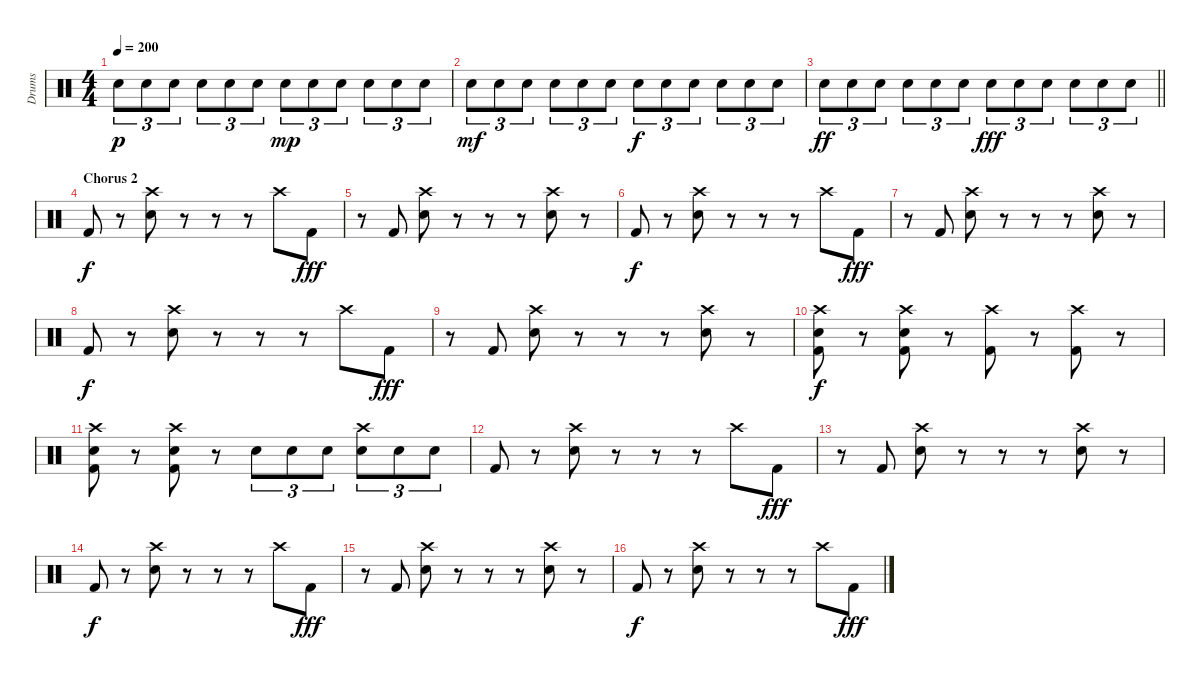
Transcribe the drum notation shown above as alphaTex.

\track ("Drums" "Drums") {instrument percussion}
\staff {score}
\articulation defaults
\ts (4 4)
\tempo 200
\clef neutral
\ks c "Snare (hit) 2".8{tu (3 2) dy p} "Snare (hit) 2".8{tu (3 2)} "Snare (hit) 2".8{tu (3 2)} "Snare (hit) 2".8{tu (3 2)} "Snare (hit) 2".8{tu (3 2)} "Snare (hit) 2".8{tu (3 2)} "Snare (hit) 2".8{tu (3 2) dy mp} "Snare (hit) 2".8{tu (3 2)} "Snare (hit) 2".8{tu (3 2)} "Snare (hit) 2".8{tu (3 2)} "Snare (hit) 2".8{tu (3 2)} "Snare (hit) 2".8{tu (3 2)}
|
"Snare (hit) 2".8{tu (3 2) dy mf} "Snare (hit) 2".8{tu (3 2)} "Snare (hit) 2".8{tu (3 2)} "Snare (hit) 2".8{tu (3 2)} "Snare (hit) 2".8{tu (3 2)} "Snare (hit) 2".8{tu (3 2)} "Snare (hit) 2".8{tu (3 2) dy f} "Snare (hit) 2".8{tu (3 2)} "Snare (hit) 2".8{tu (3 2)} "Snare (hit) 2".8{tu (3 2)} "Snare (hit) 2".8{tu (3 2)} "Snare (hit) 2".8{tu (3 2)} |
\barLineRight lightlight "Snare (hit) 2".8{tu (3 2) dy ff} "Snare (hit) 2".8{tu (3 2)} "Snare (hit) 2".8{tu (3 2)} "Snare (hit) 2".8{tu (3 2)} "Snare (hit) 2".8{tu (3 2)} "Snare (hit) 2".8{tu (3 2)} "Snare (hit) 2".8{tu (3 2) dy fff} "Snare (hit) 2".8{tu (3 2)} "Snare (hit) 2".8{tu (3 2)} "Snare (hit) 2".8{tu (3 2)} "Snare (hit) 2".8{tu (3 2)} "Snare (hit) 2".8{tu (3 2)}
|
\section ("" "Chorus 2")
"Kick (hit) 2".8{dy f} r.8 ("Crash high (hit)" "Snare (hit) 2").8 r.8 r.8 r.8 "Crash high (hit)".8 "Kick (hit) 2".8{dy fff} |
r.8 "Kick (hit) 2".8 ("Crash high (hit)" "Snare (hit) 2").8 r.8 r.8 r.8 ("Crash high (hit)" "Snare (hit) 2").8 r.8 |
"Kick (hit) 2".8{dy f} r.8 ("Crash high (hit)" "Snare (hit) 2").8 r.8 r.8 r.8 "Crash high (hit)".8 "Kick (hit) 2".8{dy fff} |
r.8 "Kick (hit) 2".8 ("Crash high (hit)" "Snare (hit) 2").8 r.8 r.8 r.8 ("Crash high (hit)" "Snare (hit) 2").8 r.8 |
"Kick (hit) 2".8{dy f} r.8 ("Crash high (hit)" "Snare (hit) 2").8 r.8 r.8 r.8 "Crash high (hit)".8 "Kick (hit) 2".8{dy fff} |
r.8 "Kick (hit) 2".8 ("Crash high (hit)" "Snare (hit) 2").8 r.8 r.8 r.8 ("Crash high (hit)" "Snare (hit) 2").8 r.8 |
("Crash high (hit)" "Snare (hit) 2" "Kick (hit) 2").8{dy f} r.8 ("Crash high (hit)" "Snare (hit) 2" "Kick (hit) 2").8 r.8 ("Crash high (hit)" "Kick (hit) 2").8 r.8 ("Crash high (hit)" "Kick (hit) 2").8 r.8 |
("Crash high (hit)" "Snare (hit) 2" "Kick (hit) 2").8 r.8 ("Crash high (hit)" "Snare (hit) 2" "Kick (hit) 2").8 r.8 "Snare (hit) 2".8{tu (3 2)} "Snare (hit) 2".8{tu (3 2)} "Snare (hit) 2".8{tu (3 2)} ("Crash high (hit)" "Snare (hit) 2").8{tu (3 2)} "Snare (hit) 2".8{tu (3 2)} "Snare (hit) 2".8{tu (3 2)} |
"Kick (hit) 2".8 r.8 ("Crash high (hit)" "Snare (hit) 2").8 r.8 r.8 r.8 "Crash high (hit)".8 "Kick (hit) 2".8{dy fff} |
r.8 "Kick (hit) 2".8 ("Crash high (hit)" "Snare (hit) 2").8 r.8 r.8 r.8 ("Crash high (hit)" "Snare (hit) 2").8 r.8 |
"Kick (hit) 2".8{dy f} r.8 ("Crash high (hit)" "Snare (hit) 2").8 r.8 r.8 r.8 "Crash high (hit)".8 "Kick (hit) 2".8{dy fff} |
r.8 "Kick (hit) 2".8 ("Crash high (hit)" "Snare (hit) 2").8 r.8 r.8 r.8 ("Crash high (hit)" "Snare (hit) 2").8 r.8 |
"Kick (hit) 2".8{dy f} r.8 ("Crash high (hit)" "Snare (hit) 2").8 r.8 r.8 r.8 "Crash high (hit)".8 "Kick (hit) 2".8{dy fff}
